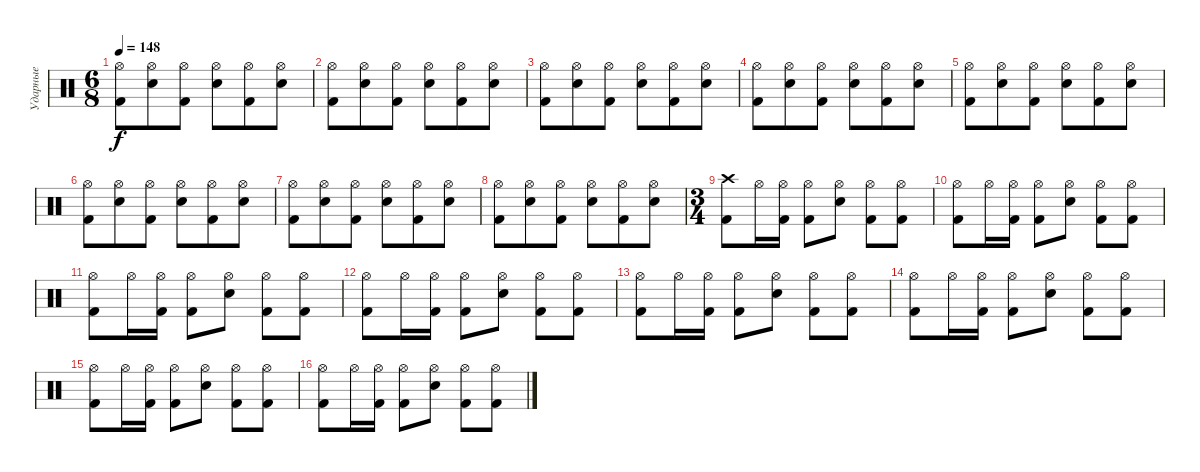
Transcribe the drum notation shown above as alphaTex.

\track ("Ударные" "Ударные") {instrument percussion}
\staff {score}
\articulation defaults
\ts (6 8)
\tempo 148
\clef neutral
\ks c
("Hi-Hat (open)" "Kick (hit) 2").8{dy f} ("Hi-Hat (open)" "Electric Snare (hit)").8 ("Hi-Hat (open)" "Kick (hit) 2").8 ("Hi-Hat (open)" "Electric Snare (hit)").8 ("Hi-Hat (open)" "Kick (hit) 2").8 ("Hi-Hat (open)" "Electric Snare (hit)").8 |
("Hi-Hat (open)" "Kick (hit) 2").8 ("Hi-Hat (open)" "Electric Snare (hit)").8 ("Hi-Hat (open)" "Kick (hit) 2").8 ("Hi-Hat (open)" "Electric Snare (hit)").8 ("Hi-Hat (open)" "Kick (hit) 2").8 ("Hi-Hat (open)" "Electric Snare (hit)").8 |
("Hi-Hat (open)" "Kick (hit) 2").8 ("Hi-Hat (open)" "Electric Snare (hit)").8 ("Hi-Hat (open)" "Kick (hit) 2").8 ("Hi-Hat (open)" "Electric Snare (hit)").8 ("Hi-Hat (open)" "Kick (hit) 2").8 ("Hi-Hat (open)" "Electric Snare (hit)").8 |
("Hi-Hat (open)" "Kick (hit) 2").8 ("Hi-Hat (open)" "Electric Snare (hit)").8 ("Hi-Hat (open)" "Kick (hit) 2").8 ("Hi-Hat (open)" "Electric Snare (hit)").8 ("Hi-Hat (open)" "Kick (hit) 2").8 ("Hi-Hat (open)" "Electric Snare (hit)").8 |
("Hi-Hat (open)" "Kick (hit) 2").8 ("Hi-Hat (open)" "Electric Snare (hit)").8 ("Hi-Hat (open)" "Kick (hit) 2").8 ("Hi-Hat (open)" "Electric Snare (hit)").8 ("Hi-Hat (open)" "Kick (hit) 2").8 ("Hi-Hat (open)" "Electric Snare (hit)").8 |
("Hi-Hat (open)" "Kick (hit) 2").8 ("Hi-Hat (open)" "Electric Snare (hit)").8 ("Hi-Hat (open)" "Kick (hit) 2").8 ("Hi-Hat (open)" "Electric Snare (hit)").8 ("Hi-Hat (open)" "Kick (hit) 2").8 ("Hi-Hat (open)" "Electric Snare (hit)").8 |
("Hi-Hat (open)" "Kick (hit) 2").8 ("Hi-Hat (open)" "Electric Snare (hit)").8 ("Hi-Hat (open)" "Kick (hit) 2").8 ("Hi-Hat (open)" "Electric Snare (hit)").8 ("Hi-Hat (open)" "Kick (hit) 2").8 ("Hi-Hat (open)" "Electric Snare (hit)").8 |
("Hi-Hat (open)" "Kick (hit) 2").8 ("Hi-Hat (open)" "Electric Snare (hit)").8 ("Hi-Hat (open)" "Kick (hit) 2").8 ("Hi-Hat (open)" "Electric Snare (hit)").8 ("Hi-Hat (open)" "Kick (hit) 2").8 ("Hi-Hat (open)" "Electric Snare (hit)").8 |
\ts (3 4)
("Crash high (hit)" "Kick (hit) 2").8 "Hi-Hat (open)".16 ("Hi-Hat (open)" "Kick (hit) 2").16 ("Hi-Hat (open)" "Kick (hit) 2").8 ("Hi-Hat (open)" "Electric Snare (hit)").8 ("Hi-Hat (open)" "Kick (hit) 2").8 ("Hi-Hat (open)" "Kick (hit) 2").8 |
("Hi-Hat (open)" "Kick (hit) 2").8 "Hi-Hat (open)".16 ("Hi-Hat (open)" "Kick (hit) 2").16 ("Hi-Hat (open)" "Kick (hit) 2").8 ("Hi-Hat (open)" "Electric Snare (hit)").8 ("Hi-Hat (open)" "Kick (hit) 2").8 ("Hi-Hat (open)" "Kick (hit) 2").8 |
("Hi-Hat (open)" "Kick (hit) 2").8 "Hi-Hat (open)".16 ("Hi-Hat (open)" "Kick (hit) 2").16 ("Hi-Hat (open)" "Kick (hit) 2").8 ("Hi-Hat (open)" "Electric Snare (hit)").8 ("Hi-Hat (open)" "Kick (hit) 2").8 ("Hi-Hat (open)" "Kick (hit) 2").8 |
("Hi-Hat (open)" "Kick (hit) 2").8 "Hi-Hat (open)".16 ("Hi-Hat (open)" "Kick (hit) 2").16 ("Hi-Hat (open)" "Kick (hit) 2").8 ("Hi-Hat (open)" "Electric Snare (hit)").8 ("Hi-Hat (open)" "Kick (hit) 2").8 ("Hi-Hat (open)" "Kick (hit) 2").8 |
("Hi-Hat (open)" "Kick (hit) 2").8 "Hi-Hat (open)".16 ("Hi-Hat (open)" "Kick (hit) 2").16 ("Hi-Hat (open)" "Kick (hit) 2").8 ("Hi-Hat (open)" "Electric Snare (hit)").8 ("Hi-Hat (open)" "Kick (hit) 2").8 ("Hi-Hat (open)" "Kick (hit) 2").8 |
("Hi-Hat (open)" "Kick (hit) 2").8 "Hi-Hat (open)".16 ("Hi-Hat (open)" "Kick (hit) 2").16 ("Hi-Hat (open)" "Kick (hit) 2").8 ("Hi-Hat (open)" "Electric Snare (hit)").8 ("Hi-Hat (open)" "Kick (hit) 2").8 ("Hi-Hat (open)" "Kick (hit) 2").8 |
("Hi-Hat (open)" "Kick (hit) 2").8 "Hi-Hat (open)".16 ("Hi-Hat (open)" "Kick (hit) 2").16 ("Hi-Hat (open)" "Kick (hit) 2").8 ("Hi-Hat (open)" "Electric Snare (hit)").8 ("Hi-Hat (open)" "Kick (hit) 2").8 ("Hi-Hat (open)" "Kick (hit) 2").8 |
("Hi-Hat (open)" "Kick (hit) 2").8 "Hi-Hat (open)".16 ("Hi-Hat (open)" "Kick (hit) 2").16 ("Hi-Hat (open)" "Kick (hit) 2").8 ("Hi-Hat (open)" "Electric Snare (hit)").8 ("Hi-Hat (open)" "Kick (hit) 2").8 ("Hi-Hat (open)" "Kick (hit) 2").8
